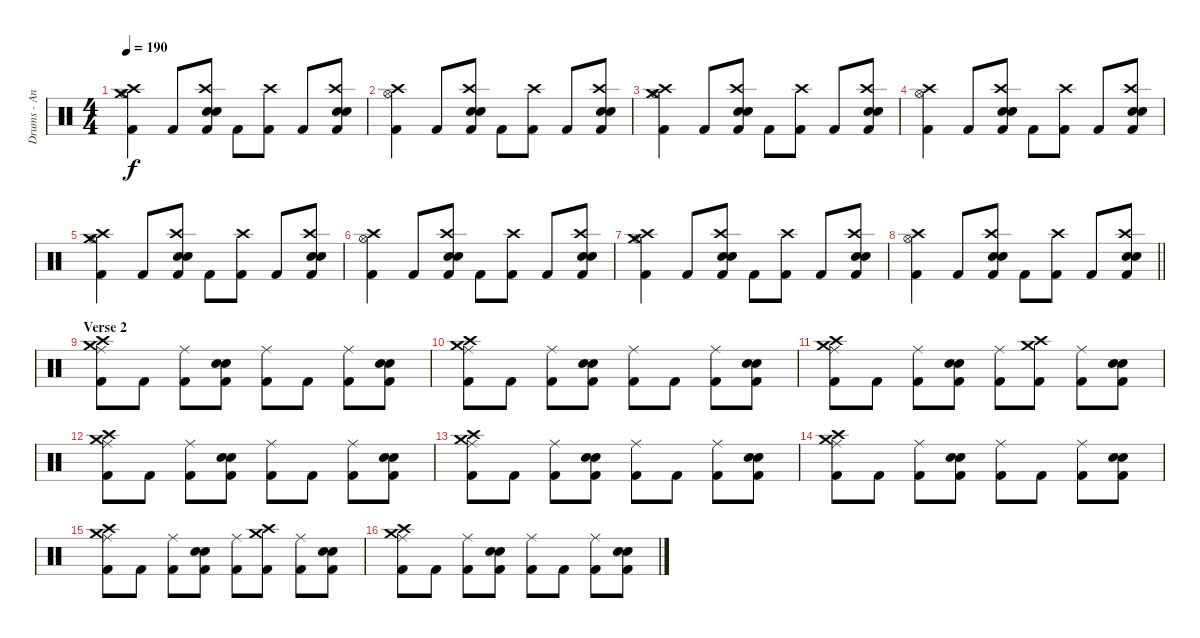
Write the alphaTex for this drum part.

\track ("Drums - Anders Johansson" "Drums - An") {instrument percussion}
\staff {score}
\articulation defaults
\ts (4 4)
\tempo 190
\clef neutral
\ks c
("Hi-Hat (open)" "Kick (hit) 2" "Crash medium (hit)" "Crash high (hit)").4{dy f} "Kick (hit) 2".8 ("Electric Snare (hit)" "Snare (hit) 2" "Kick (hit) 2" "Crash high (hit)").8 "Kick (hit) 2".8 ("Kick (hit) 2" "Crash high (hit)").8 "Kick (hit) 2".8 ("Electric Snare (hit)" "Snare (hit) 2" "Kick (hit) 2" "Crash high (hit)").8 |
("Hi-Hat (open)" "Kick (hit) 2" "Crash high (hit)").4 "Kick (hit) 2".8 ("Electric Snare (hit)" "Snare (hit) 2" "Kick (hit) 2" "Crash high (hit)").8 "Kick (hit) 2".8 ("Kick (hit) 2" "Crash high (hit)").8 "Kick (hit) 2".8 ("Electric Snare (hit)" "Snare (hit) 2" "Kick (hit) 2" "Crash high (hit)").8 |
("Hi-Hat (open)" "Kick (hit) 2" "Crash medium (hit)" "Crash high (hit)").4 "Kick (hit) 2".8 ("Electric Snare (hit)" "Snare (hit) 2" "Kick (hit) 2" "Crash high (hit)").8 "Kick (hit) 2".8 ("Kick (hit) 2" "Crash high (hit)").8 "Kick (hit) 2".8 ("Electric Snare (hit)" "Snare (hit) 2" "Kick (hit) 2" "Crash high (hit)").8 |
("Hi-Hat (open)" "Kick (hit) 2" "Crash high (hit)").4 "Kick (hit) 2".8 ("Electric Snare (hit)" "Snare (hit) 2" "Kick (hit) 2" "Crash high (hit)").8 "Kick (hit) 2".8 ("Kick (hit) 2" "Crash high (hit)").8 "Kick (hit) 2".8 ("Electric Snare (hit)" "Snare (hit) 2" "Kick (hit) 2" "Crash high (hit)").8 |
("Hi-Hat (open)" "Kick (hit) 2" "Crash medium (hit)" "Crash high (hit)").4 "Kick (hit) 2".8 ("Electric Snare (hit)" "Snare (hit) 2" "Kick (hit) 2" "Crash high (hit)").8 "Kick (hit) 2".8 ("Kick (hit) 2" "Crash high (hit)").8 "Kick (hit) 2".8 ("Electric Snare (hit)" "Snare (hit) 2" "Kick (hit) 2" "Crash high (hit)").8 |
("Hi-Hat (open)" "Kick (hit) 2" "Crash high (hit)").4 "Kick (hit) 2".8 ("Electric Snare (hit)" "Snare (hit) 2" "Kick (hit) 2" "Crash high (hit)").8 "Kick (hit) 2".8 ("Kick (hit) 2" "Crash high (hit)").8 "Kick (hit) 2".8 ("Electric Snare (hit)" "Snare (hit) 2" "Kick (hit) 2" "Crash high (hit)").8 |
("Hi-Hat (open)" "Kick (hit) 2" "Crash medium (hit)" "Crash high (hit)").4 "Kick (hit) 2".8 ("Electric Snare (hit)" "Snare (hit) 2" "Kick (hit) 2" "Crash high (hit)").8 "Kick (hit) 2".8 ("Kick (hit) 2" "Crash high (hit)").8 "Kick (hit) 2".8 ("Electric Snare (hit)" "Snare (hit) 2" "Kick (hit) 2" "Crash high (hit)").8 |
\barLineRight lightlight
("Hi-Hat (open)" "Kick (hit) 2" "Crash high (hit)").4 "Kick (hit) 2".8 ("Electric Snare (hit)" "Snare (hit) 2" "Kick (hit) 2" "Crash high (hit)").8 "Kick (hit) 2".8 ("Kick (hit) 2" "Crash high (hit)").8 "Kick (hit) 2".8 ("Electric Snare (hit)" "Snare (hit) 2" "Kick (hit) 2" "Crash high (hit)").8 |
\section ("" "Verse 2")
("Ride (middle)" "Kick (hit) 2" "Crash medium (hit)" "Crash high (hit)").8 "Kick (hit) 2".8 ("Ride (middle)" "Kick (hit) 2").8 ("Electric Snare (hit)" "Snare (hit) 2" "Kick (hit) 2").8 ("Ride (middle)" "Kick (hit) 2").8 "Kick (hit) 2".8 ("Ride (middle)" "Kick (hit) 2").8 ("Electric Snare (hit)" "Snare (hit) 2" "Kick (hit) 2").8 |
("Ride (middle)" "Kick (hit) 2" "Crash medium (hit)" "Crash high (hit)").8 "Kick (hit) 2".8 ("Ride (middle)" "Kick (hit) 2").8 ("Electric Snare (hit)" "Snare (hit) 2" "Kick (hit) 2").8 ("Ride (middle)" "Kick (hit) 2").8 "Kick (hit) 2".8 ("Ride (middle)" "Kick (hit) 2").8 ("Electric Snare (hit)" "Snare (hit) 2" "Kick (hit) 2").8 |
("Ride (middle)" "Kick (hit) 2" "Crash medium (hit)" "Crash high (hit)").8 "Kick (hit) 2".8 ("Ride (middle)" "Kick (hit) 2").8 ("Electric Snare (hit)" "Snare (hit) 2" "Kick (hit) 2").8 ("Ride (middle)" "Kick (hit) 2").8 ("Kick (hit) 2" "Crash medium (hit)" "Crash high (hit)").8 ("Ride (middle)" "Kick (hit) 2").8 ("Electric Snare (hit)" "Snare (hit) 2" "Kick (hit) 2").8 |
("Ride (middle)" "Kick (hit) 2" "Crash medium (hit)" "Crash high (hit)").8 "Kick (hit) 2".8 ("Ride (middle)" "Kick (hit) 2").8 ("Electric Snare (hit)" "Snare (hit) 2" "Kick (hit) 2").8 ("Ride (middle)" "Kick (hit) 2").8 "Kick (hit) 2".8 ("Ride (middle)" "Kick (hit) 2").8 ("Electric Snare (hit)" "Snare (hit) 2" "Kick (hit) 2").8 |
("Ride (middle)" "Kick (hit) 2" "Crash medium (hit)" "Crash high (hit)").8 "Kick (hit) 2".8 ("Ride (middle)" "Kick (hit) 2").8 ("Electric Snare (hit)" "Snare (hit) 2" "Kick (hit) 2").8 ("Ride (middle)" "Kick (hit) 2").8 "Kick (hit) 2".8 ("Ride (middle)" "Kick (hit) 2").8 ("Electric Snare (hit)" "Snare (hit) 2" "Kick (hit) 2").8 |
("Ride (middle)" "Kick (hit) 2" "Crash medium (hit)" "Crash high (hit)").8 "Kick (hit) 2".8 ("Ride (middle)" "Kick (hit) 2").8 ("Electric Snare (hit)" "Snare (hit) 2" "Kick (hit) 2").8 ("Ride (middle)" "Kick (hit) 2").8 "Kick (hit) 2".8 ("Ride (middle)" "Kick (hit) 2").8 ("Electric Snare (hit)" "Snare (hit) 2" "Kick (hit) 2").8 |
("Ride (middle)" "Kick (hit) 2" "Crash medium (hit)" "Crash high (hit)").8 "Kick (hit) 2".8 ("Ride (middle)" "Kick (hit) 2").8 ("Electric Snare (hit)" "Snare (hit) 2" "Kick (hit) 2").8 ("Ride (middle)" "Kick (hit) 2").8 ("Kick (hit) 2" "Crash medium (hit)" "Crash high (hit)").8 ("Ride (middle)" "Kick (hit) 2").8 ("Electric Snare (hit)" "Snare (hit) 2" "Kick (hit) 2").8 |
("Ride (middle)" "Kick (hit) 2" "Crash medium (hit)" "Crash high (hit)").8 "Kick (hit) 2".8 ("Ride (middle)" "Kick (hit) 2").8 ("Electric Snare (hit)" "Snare (hit) 2" "Kick (hit) 2").8 ("Ride (middle)" "Kick (hit) 2").8 "Kick (hit) 2".8 ("Ride (middle)" "Kick (hit) 2").8 ("Electric Snare (hit)" "Snare (hit) 2" "Kick (hit) 2").8
